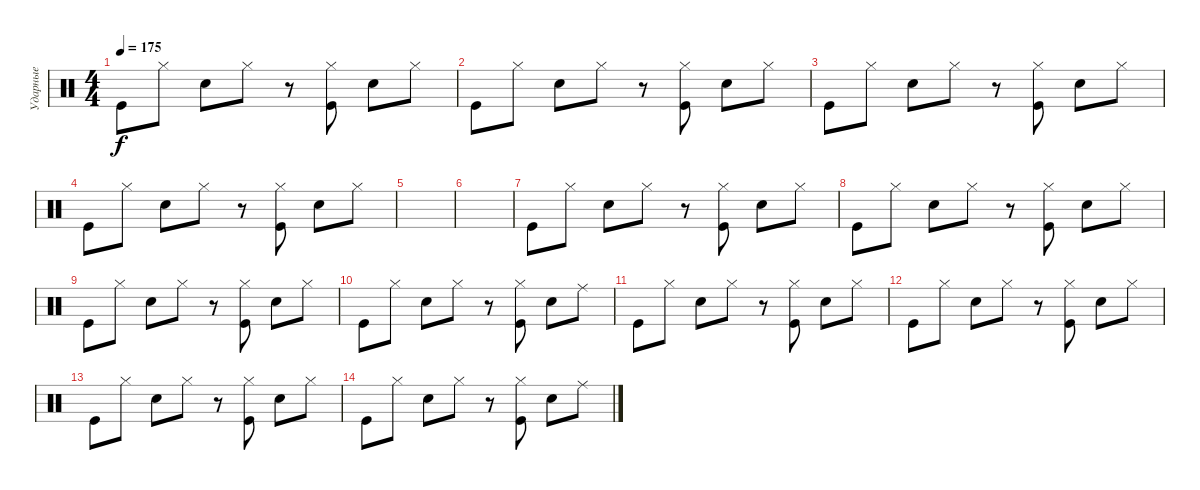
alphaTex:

\track ("Ударные" "Ударные") {instrument percussion}
\staff {score}
\articulation defaults
\ts (4 4)
\tempo 175
\clef neutral
\ks c "Kick (hit)".8{dy f} "Hi-Hat (closed)".8 "Electric Snare (hit)".8 "Hi-Hat (closed)".8
r.8 ("Hi-Hat (closed)" "Kick (hit)").8 "Electric Snare (hit)".8 "Hi-Hat (closed)".8 |
"Kick (hit)".8 "Hi-Hat (closed)".8 "Electric Snare (hit)".8 "Hi-Hat (closed)".8 r.8 ("Hi-Hat (closed)" "Kick (hit)").8 "Electric Snare (hit)".8 "Hi-Hat (closed)".8 |
"Kick (hit)".8 "Hi-Hat (closed)".8 "Electric Snare (hit)".8 "Hi-Hat (closed)".8 r.8 ("Hi-Hat (closed)" "Kick (hit)").8 "Electric Snare (hit)".8 "Hi-Hat (closed)".8 |
"Kick (hit)".8 "Hi-Hat (closed)".8 "Electric Snare (hit)".8 "Hi-Hat (closed)".8 r.8 ("Hi-Hat (closed)" "Kick (hit)").8 "Electric Snare (hit)".8 "Hi-Hat (closed)".8 |
|
|
"Kick (hit)".8 "Hi-Hat (closed)".8 "Electric Snare (hit)".8 "Hi-Hat (closed)".8 r.8 ("Hi-Hat (closed)" "Kick (hit)").8 "Electric Snare (hit)".8 "Hi-Hat (closed)".8 |
"Kick (hit)".8 "Hi-Hat (closed)".8 "Electric Snare (hit)".8 "Hi-Hat (closed)".8 r.8 ("Hi-Hat (closed)" "Kick (hit)").8 "Electric Snare (hit)".8 "Hi-Hat (closed)".8 |
"Kick (hit)".8 "Hi-Hat (closed)".8 "Electric Snare (hit)".8 "Hi-Hat (closed)".8 r.8 ("Hi-Hat (closed)" "Kick (hit)").8 "Electric Snare (hit)".8 "Hi-Hat (closed)".8 |
"Kick (hit)".8 "Hi-Hat (closed)".8 "Electric Snare (hit)".8 "Hi-Hat (closed)".8 r.8 ("Hi-Hat (closed)" "Kick (hit)").8 "Electric Snare (hit)".8 "Ride (middle)".8 |
"Kick (hit)".8 "Hi-Hat (closed)".8 "Electric Snare (hit)".8 "Hi-Hat (closed)".8 r.8 ("Hi-Hat (closed)" "Kick (hit)").8 "Electric Snare (hit)".8 "Hi-Hat (closed)".8 |
"Kick (hit)".8 "Hi-Hat (closed)".8 "Electric Snare (hit)".8 "Hi-Hat (closed)".8 r.8 ("Hi-Hat (closed)" "Kick (hit)").8 "Electric Snare (hit)".8 "Hi-Hat (closed)".8 |
"Kick (hit)".8 "Hi-Hat (closed)".8 "Electric Snare (hit)".8 "Hi-Hat (closed)".8 r.8 ("Hi-Hat (closed)" "Kick (hit)").8 "Electric Snare (hit)".8 "Hi-Hat (closed)".8 |
"Kick (hit)".8 "Hi-Hat (closed)".8 "Electric Snare (hit)".8 "Hi-Hat (closed)".8 r.8 ("Hi-Hat (closed)" "Kick (hit)").8 "Electric Snare (hit)".8 "Ride (middle)".8
